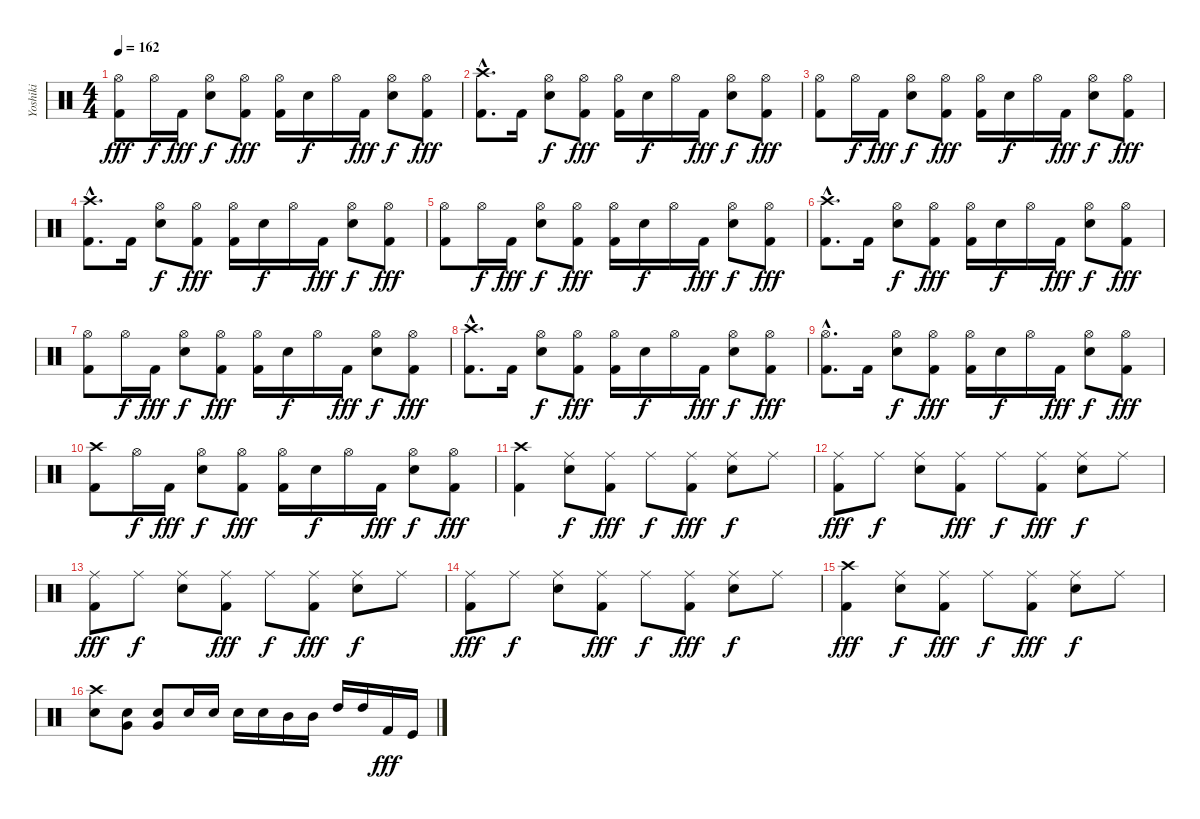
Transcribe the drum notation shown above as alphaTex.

\track ("Yoshiki" "Yoshiki") {instrument percussion}
\staff {score}
\articulation defaults
\ts (4 4)
\tempo 162
\clef neutral
\ks c
("Hi-Hat (open)" "Kick (hit) 2").8{dy fff} "Hi-Hat (open)".16{dy f} "Kick (hit) 2".16{dy fff} ("Hi-Hat (open)" "Electric Snare (hit)").8{dy f} ("Hi-Hat (open)" "Kick (hit) 2").8{dy fff} ("Hi-Hat (open)" "Kick (hit) 2").16 "Electric Snare (hit)".16{dy f} "Hi-Hat (open)".16 "Kick (hit) 2".16{dy fff} ("Hi-Hat (open)" "Electric Snare (hit)").8{dy f} ("Hi-Hat (open)" "Kick (hit) 2").8{dy fff} |
("Crash high (hit)"{hac} "Kick (hit) 2"{hac}).8{d} "Kick (hit) 2".16 ("Hi-Hat (open)" "Electric Snare (hit)").8{dy f} ("Hi-Hat (open)" "Kick (hit) 2").8{dy fff} ("Hi-Hat (open)" "Kick (hit) 2").16 "Electric Snare (hit)".16{dy f} "Hi-Hat (open)".16 "Kick (hit) 2".16{dy fff} ("Hi-Hat (open)" "Electric Snare (hit)").8{dy f} ("Hi-Hat (open)" "Kick (hit) 2").8{dy fff} |
("Hi-Hat (open)" "Kick (hit) 2").8 "Hi-Hat (open)".16{dy f} "Kick (hit) 2".16{dy fff} ("Hi-Hat (open)" "Electric Snare (hit)").8{dy f} ("Hi-Hat (open)" "Kick (hit) 2").8{dy fff} ("Hi-Hat (open)" "Kick (hit) 2").16 "Electric Snare (hit)".16{dy f} "Hi-Hat (open)".16 "Kick (hit) 2".16{dy fff} ("Hi-Hat (open)" "Electric Snare (hit)").8{dy f} ("Hi-Hat (open)" "Kick (hit) 2").8{dy fff} |
("Crash high (hit)"{hac} "Kick (hit) 2"{hac}).8{d} "Kick (hit) 2".16 ("Hi-Hat (open)" "Electric Snare (hit)").8{dy f} ("Hi-Hat (open)" "Kick (hit) 2").8{dy fff} ("Hi-Hat (open)" "Kick (hit) 2").16 "Electric Snare (hit)".16{dy f} "Hi-Hat (open)".16 "Kick (hit) 2".16{dy fff} ("Hi-Hat (open)" "Electric Snare (hit)").8{dy f} ("Hi-Hat (open)" "Kick (hit) 2").8{dy fff} |
("Hi-Hat (open)" "Kick (hit) 2").8 "Hi-Hat (open)".16{dy f} "Kick (hit) 2".16{dy fff} ("Hi-Hat (open)" "Electric Snare (hit)").8{dy f} ("Hi-Hat (open)" "Kick (hit) 2").8{dy fff} ("Hi-Hat (open)" "Kick (hit) 2").16 "Electric Snare (hit)".16{dy f} "Hi-Hat (open)".16 "Kick (hit) 2".16{dy fff} ("Hi-Hat (open)" "Electric Snare (hit)").8{dy f} ("Hi-Hat (open)" "Kick (hit) 2").8{dy fff} |
("Crash high (hit)"{hac} "Kick (hit) 2"{hac}).8{d} "Kick (hit) 2".16 ("Hi-Hat (open)" "Electric Snare (hit)").8{dy f} ("Hi-Hat (open)" "Kick (hit) 2").8{dy fff} ("Hi-Hat (open)" "Kick (hit) 2").16 "Electric Snare (hit)".16{dy f} "Hi-Hat (open)".16 "Kick (hit) 2".16{dy fff} ("Hi-Hat (open)" "Electric Snare (hit)").8{dy f} ("Hi-Hat (open)" "Kick (hit) 2").8{dy fff} |
("Hi-Hat (open)" "Kick (hit) 2").8 "Hi-Hat (open)".16{dy f} "Kick (hit) 2".16{dy fff} ("Hi-Hat (open)" "Electric Snare (hit)").8{dy f} ("Hi-Hat (open)" "Kick (hit) 2").8{dy fff} ("Hi-Hat (open)" "Kick (hit) 2").16 "Electric Snare (hit)".16{dy f} "Hi-Hat (open)".16 "Kick (hit) 2".16{dy fff} ("Hi-Hat (open)" "Electric Snare (hit)").8{dy f} ("Hi-Hat (open)" "Kick (hit) 2").8{dy fff} |
("Crash high (hit)"{hac} "Kick (hit) 2"{hac}).8{d} "Kick (hit) 2".16 ("Hi-Hat (open)" "Electric Snare (hit)").8{dy f} ("Hi-Hat (open)" "Kick (hit) 2").8{dy fff} ("Hi-Hat (open)" "Kick (hit) 2").16 "Electric Snare (hit)".16{dy f} "Hi-Hat (open)".16 "Kick (hit) 2".16{dy fff} ("Hi-Hat (open)" "Electric Snare (hit)").8{dy f} ("Hi-Hat (open)" "Kick (hit) 2").8{dy fff} |
("Hi-Hat (open)"{hac} "Kick (hit) 2"{hac}).8{d} "Kick (hit) 2".16 ("Hi-Hat (open)" "Electric Snare (hit)").8{dy f} ("Hi-Hat (open)" "Kick (hit) 2").8{dy fff} ("Hi-Hat (open)" "Kick (hit) 2").16 "Electric Snare (hit)".16{dy f} "Hi-Hat (open)".16 "Kick (hit) 2".16{dy fff} ("Hi-Hat (open)" "Electric Snare (hit)").8{dy f} ("Hi-Hat (open)" "Kick (hit) 2").8{dy fff} |
("Crash high (hit)" "Kick (hit) 2").8 "Hi-Hat (open)".16{dy f} "Kick (hit) 2".16{dy fff} ("Hi-Hat (open)" "Electric Snare (hit)").8{dy f} ("Hi-Hat (open)" "Kick (hit) 2").8{dy fff} ("Hi-Hat (open)" "Kick (hit) 2").16 "Electric Snare (hit)".16{dy f} "Hi-Hat (open)".16 "Kick (hit) 2".16{dy fff} ("Hi-Hat (open)" "Electric Snare (hit)").8{dy f} ("Hi-Hat (open)" "Kick (hit) 2").8{dy fff} |
("Crash high (hit)" "Kick (hit) 2").4 ("Ride (middle)" "Electric Snare (hit)").8{dy f} ("Ride (middle)" "Kick (hit) 2").8{dy fff} "Ride (middle)".8{dy f} ("Ride (middle)" "Kick (hit) 2").8{dy fff} ("Ride (middle)" "Electric Snare (hit)").8{dy f} "Ride (middle)".8 |
("Ride (middle)" "Kick (hit) 2").8{dy fff} "Ride (middle)".8{dy f} ("Ride (middle)" "Electric Snare (hit)").8 ("Ride (middle)" "Kick (hit) 2").8{dy fff} "Ride (middle)".8{dy f} ("Ride (middle)" "Kick (hit) 2").8{dy fff} ("Ride (middle)" "Electric Snare (hit)").8{dy f} "Ride (middle)".8 |
("Ride (middle)" "Kick (hit) 2").8{dy fff} "Ride (middle)".8{dy f} ("Ride (middle)" "Electric Snare (hit)").8 ("Ride (middle)" "Kick (hit) 2").8{dy fff} "Ride (middle)".8{dy f} ("Ride (middle)" "Kick (hit) 2").8{dy fff} ("Ride (middle)" "Electric Snare (hit)").8{dy f} "Ride (middle)".8 |
("Ride (middle)" "Kick (hit) 2").8{dy fff} "Ride (middle)".8{dy f} ("Ride (middle)" "Electric Snare (hit)").8 ("Ride (middle)" "Kick (hit) 2").8{dy fff} "Ride (middle)".8{dy f} ("Ride (middle)" "Kick (hit) 2").8{dy fff} ("Ride (middle)" "Electric Snare (hit)").8{dy f} "Ride (middle)".8 |
("Crash high (hit)" "Kick (hit) 2").4{dy fff} ("Ride (middle)" "Electric Snare (hit)").8{dy f} ("Ride (middle)" "Kick (hit) 2").8{dy fff} "Ride (middle)".8{dy f} ("Ride (middle)" "Kick (hit) 2").8{dy fff} ("Ride (middle)" "Electric Snare (hit)").8{dy f} "Ride (middle)".8 |
("Crash high (hit)" "Electric Snare (hit)").8 ("Very Low Tom (hit)" "Electric Snare (hit)").8 ("Very Low Tom (hit)" "Electric Snare (hit)").8 "Electric Snare (hit)".16 "Electric Snare (hit)".16 "Electric Snare (hit)".16 "Electric Snare (hit)".16 "Mid Tom (hit)".16 "Mid Tom (hit)".16 "High Tom (hit)".16 "High Tom (hit)".16 "Kick (hit) 2".16{dy fff} "Kick (hit)".16
